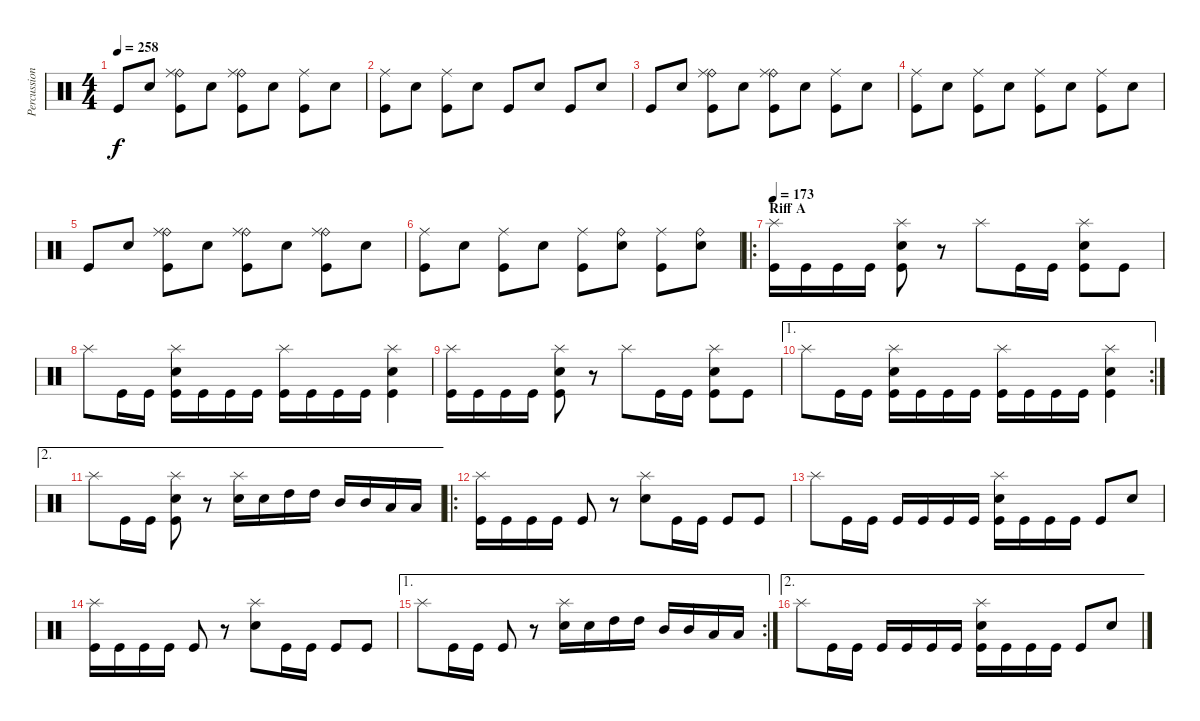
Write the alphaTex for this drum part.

\track ("Percussion" "Percussion") {instrument percussion}
\staff {score}
\articulation defaults
\ts (4 4)
\tempo 258
\clef neutral
\ks c "Kick (hit)".8{dy f} "Snare (hit) 2".8
("Ride (bell)" "Ride (middle)" "Kick (hit)").8 "Snare (hit) 2".8 ("Ride (bell)" "Ride (middle)" "Kick (hit)").8 "Snare (hit) 2".8 ("Ride (middle)" "Kick (hit)").8 "Snare (hit) 2".8 |
("Ride (middle)" "Kick (hit)").8 "Snare (hit) 2".8 ("Ride (middle)" "Kick (hit)").8 "Snare (hit) 2".8 "Kick (hit)".8 "Snare (hit) 2".8 "Kick (hit)".8 "Snare (hit) 2".8 |
"Kick (hit)".8 "Snare (hit) 2".8 ("Ride (bell)" "Ride (middle)" "Kick (hit)").8 "Snare (hit) 2".8 ("Ride (bell)" "Ride (middle)" "Kick (hit)").8 "Snare (hit) 2".8 ("Ride (middle)" "Kick (hit)").8 "Snare (hit) 2".8 |
("Ride (middle)" "Kick (hit)").8 "Snare (hit) 2".8 ("Ride (middle)" "Kick (hit)").8 "Snare (hit) 2".8 ("Ride (middle)" "Kick (hit)").8 "Snare (hit) 2".8 ("Ride (middle)" "Kick (hit)").8 "Snare (hit) 2".8 |
"Kick (hit)".8 "Snare (hit) 2".8 ("Ride (bell)" "Ride (middle)" "Kick (hit)").8 "Snare (hit) 2".8 ("Ride (bell)" "Ride (middle)" "Kick (hit)").8 "Snare (hit) 2".8 ("Ride (bell)" "Ride (middle)" "Kick (hit)").8 "Snare (hit) 2".8 |
("Ride (middle)" "Kick (hit)").8 "Snare (hit) 2".8 ("Ride (middle)" "Kick (hit)").8 "Snare (hit) 2".8 ("Ride (middle)" "Kick (hit)").8 ("Ride (bell)" "Snare (hit) 2").8 ("Ride (middle)" "Kick (hit)").8 ("Ride (bell)" "Snare (hit) 2").8 |
\ro
\section ("" "Riff A")
\tempo 173
("Splash (hit)" "Kick (hit)").16 "Kick (hit)".16 "Kick (hit)".16 "Kick (hit)".16 ("Splash (hit)" "Snare (hit) 2" "Kick (hit)").8 r.8 "Splash (hit)".8 "Kick (hit)".16 "Kick (hit)".16 ("Splash (hit)" "Snare (hit) 2" "Kick (hit)").8 "Kick (hit)".8 |
"Splash (hit)".8 "Kick (hit)".16 "Kick (hit)".16 ("Splash (hit)" "Snare (hit) 2" "Kick (hit)").16 "Kick (hit)".16 "Kick (hit)".16 "Kick (hit)".16 ("Splash (hit)" "Kick (hit)").16 "Kick (hit)".16 "Kick (hit)".16 "Kick (hit)".16 ("Splash (hit)" "Snare (hit) 2" "Kick (hit)").4 |
("Splash (hit)" "Kick (hit)").16 "Kick (hit)".16 "Kick (hit)".16 "Kick (hit)".16 ("Splash (hit)" "Snare (hit) 2" "Kick (hit)").8 r.8 "Splash (hit)".8 "Kick (hit)".16 "Kick (hit)".16 ("Splash (hit)" "Snare (hit) 2" "Kick (hit)").8 "Kick (hit)".8 |
\ae 1
\rc 2 "Splash (hit)".8 "Kick (hit)".16 "Kick (hit)".16
("Splash (hit)" "Snare (hit) 2" "Kick (hit)").16 "Kick (hit)".16 "Kick (hit)".16 "Kick (hit)".16 ("Splash (hit)" "Kick (hit)").16 "Kick (hit)".16 "Kick (hit)".16 "Kick (hit)".16 ("Splash (hit)" "Snare (hit) 2" "Kick (hit)").4 |
\ae 2 "Splash (hit)".8 "Kick (hit)".16 "Kick (hit)".16
("Splash (hit)" "Snare (hit) 2" "Kick (hit)").8 r.8 ("Splash (hit)" "Snare (hit) 2").16 "Snare (hit) 2".16 "High Tom (hit)".16 "High Tom (hit)".16 "Mid Tom (hit)".16 "Mid Tom (hit)".16 "Low Tom (hit)".16 "Low Tom (hit)".16 |
\ro
("Splash (hit)" "Kick (hit)").16 "Kick (hit)".16 "Kick (hit)".16 "Kick (hit)".16 "Kick (hit)".8 r.8 ("Splash (hit)" "Snare (hit) 2").8 "Kick (hit)".16 "Kick (hit)".16 "Kick (hit)".8 "Kick (hit)".8 |
"Splash (hit)".8 "Kick (hit)".16 "Kick (hit)".16 "Kick (hit)".16 "Kick (hit)".16 "Kick (hit)".16 "Kick (hit)".16 ("Splash (hit)" "Snare (hit) 2" "Kick (hit)").16 "Kick (hit)".16 "Kick (hit)".16 "Kick (hit)".16 "Kick (hit)".8 "Snare (hit) 2".8 |
("Splash (hit)" "Kick (hit)").16 "Kick (hit)".16 "Kick (hit)".16 "Kick (hit)".16 "Kick (hit)".8 r.8 ("Splash (hit)" "Snare (hit) 2").8 "Kick (hit)".16 "Kick (hit)".16 "Kick (hit)".8 "Kick (hit)".8 |
\ae 1
\rc 2 "Splash (hit)".8 "Kick (hit)".16 "Kick (hit)".16 "Kick (hit)".8
r.8 ("Splash (hit)" "Snare (hit) 2").16 "Snare (hit) 2".16 "High Tom (hit)".16 "High Tom (hit)".16 "Mid Tom (hit)".16 "Mid Tom (hit)".16 "Low Tom (hit)".16 "Low Tom (hit)".16 |
\ae 2 "Splash (hit)".8 "Kick (hit)".16 "Kick (hit)".16 "Kick (hit)".16 "Kick (hit)".16 "Kick (hit)".16 "Kick (hit)".16
("Splash (hit)" "Snare (hit) 2" "Kick (hit)").16 "Kick (hit)".16 "Kick (hit)".16 "Kick (hit)".16 "Kick (hit)".8 "Snare (hit) 2".8
